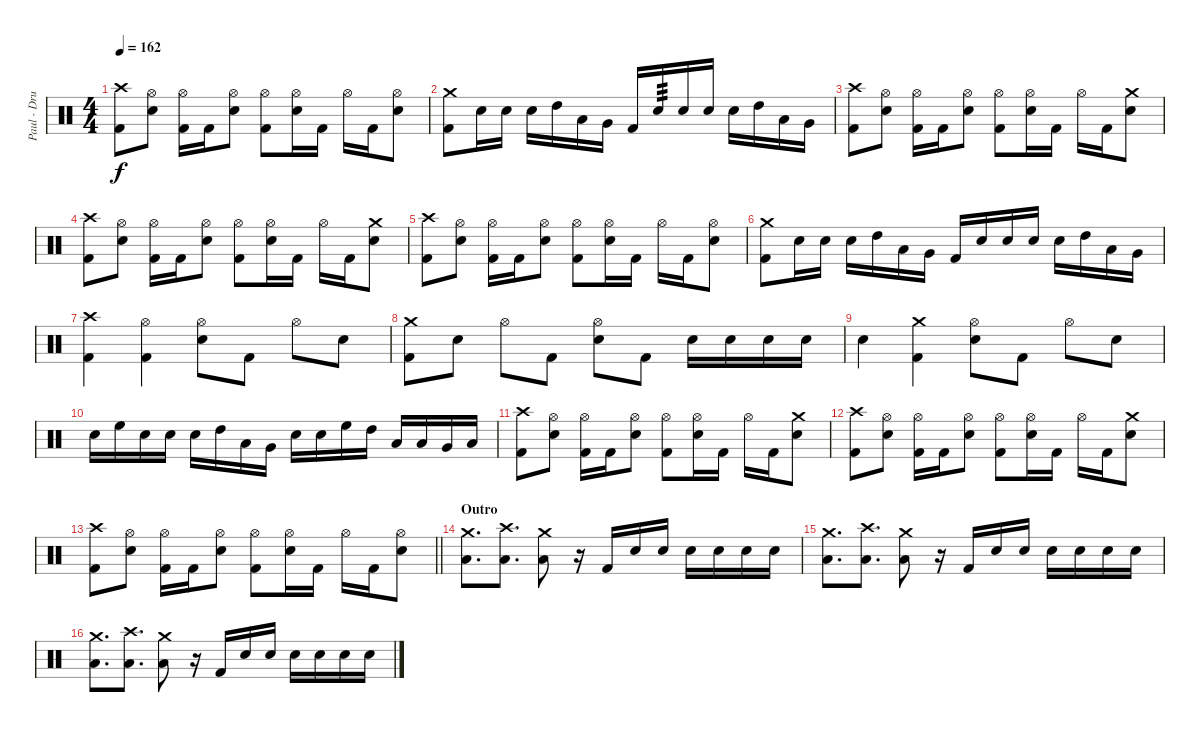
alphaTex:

\track ("Paul - Drums" "Paul - Dru") {instrument percussion}
\staff {score}
\articulation defaults
\ts (4 4)
\tempo 162
\clef neutral
\ks c
("Crash high (hit)" "Kick (hit) 2").8{dy f} ("Hi-Hat (open)" "Electric Snare (hit)").8 ("Hi-Hat (open)" "Kick (hit) 2").16 "Kick (hit) 2".16 ("Hi-Hat (open)" "Electric Snare (hit)").8 ("Hi-Hat (open)" "Kick (hit) 2").8 ("Hi-Hat (open)" "Electric Snare (hit)").16 "Kick (hit) 2".16 "Hi-Hat (open)".16 "Kick (hit) 2".16 ("Hi-Hat (open)" "Electric Snare (hit)").8 |
("Crash medium (hit)" "Kick (hit) 2").8 "Electric Snare (hit)".16 "Electric Snare (hit)".16 "Electric Snare (hit)".16 "High Tom (hit)".16 "Low Tom (hit)".16 "Very Low Tom (hit)".16 "Kick (hit) 2".16 "Electric Snare (hit)".16{tp 3} "Electric Snare (hit)".16 "Electric Snare (hit)".16 "Electric Snare (hit)".16 "High Tom (hit)".16 "Low Tom (hit)".16 "Very Low Tom (hit)".16 |
("Crash high (hit)" "Kick (hit) 2").8 ("Hi-Hat (open)" "Electric Snare (hit)").8 ("Hi-Hat (open)" "Kick (hit) 2").16 "Kick (hit) 2".16 ("Hi-Hat (open)" "Electric Snare (hit)").8 ("Hi-Hat (open)" "Kick (hit) 2").8 ("Hi-Hat (open)" "Electric Snare (hit)").16 "Kick (hit) 2".16 "Hi-Hat (open)".16 "Kick (hit) 2".16 ("Crash medium (hit)" "Electric Snare (hit)").8 |
("Crash high (hit)" "Kick (hit) 2").8 ("Hi-Hat (open)" "Electric Snare (hit)").8 ("Hi-Hat (open)" "Kick (hit) 2").16 "Kick (hit) 2".16 ("Hi-Hat (open)" "Electric Snare (hit)").8 ("Hi-Hat (open)" "Kick (hit) 2").8 ("Hi-Hat (open)" "Electric Snare (hit)").16 "Kick (hit) 2".16 "Hi-Hat (open)".16 "Kick (hit) 2".16 ("Crash medium (hit)" "Electric Snare (hit)").8 |
("Crash high (hit)" "Kick (hit) 2").8 ("Hi-Hat (open)" "Electric Snare (hit)").8 ("Hi-Hat (open)" "Kick (hit) 2").16 "Kick (hit) 2".16 ("Hi-Hat (open)" "Electric Snare (hit)").8 ("Hi-Hat (open)" "Kick (hit) 2").8 ("Hi-Hat (open)" "Electric Snare (hit)").16 "Kick (hit) 2".16 "Hi-Hat (open)".16 "Kick (hit) 2".16 ("Hi-Hat (open)" "Electric Snare (hit)").8 |
("Crash medium (hit)" "Kick (hit) 2").8 "Electric Snare (hit)".16 "Electric Snare (hit)".16 "Electric Snare (hit)".16 "High Tom (hit)".16 "Low Tom (hit)".16 "Very Low Tom (hit)".16 "Kick (hit) 2".16 "Electric Snare (hit)".16 "Electric Snare (hit)".16 "Electric Snare (hit)".16 "Electric Snare (hit)".16 "High Tom (hit)".16 "Low Tom (hit)".16 "Very Low Tom (hit)".16 |
("Crash high (hit)" "Kick (hit) 2").4 ("Hi-Hat (open)" "Kick (hit) 2").4 ("Hi-Hat (open)" "Electric Snare (hit)").8 "Kick (hit) 2".8 "Hi-Hat (open)".8 "Electric Snare (hit)".8 |
("Crash medium (hit)" "Kick (hit) 2").8 "Electric Snare (hit)".8 "Hi-Hat (open)".8 "Kick (hit) 2".8 ("Hi-Hat (open)" "Electric Snare (hit)").8 "Kick (hit) 2".8 "Electric Snare (hit)".16 "Electric Snare (hit)".16 "Electric Snare (hit)".16 "Electric Snare (hit)".16 |
"Electric Snare (hit)".4 ("Crash medium (hit)" "Kick (hit) 2").4 ("Hi-Hat (open)" "Electric Snare (hit)").8 "Kick (hit) 2".8 "Hi-Hat (open)".8 "Electric Snare (hit)".8 |
"Electric Snare (hit)".16 "High Floor Tom (hit)".16 "Electric Snare (hit)".16 "Electric Snare (hit)".16 "Electric Snare (hit)".16 "High Tom (hit)".16 "Low Tom (hit)".16 "Very Low Tom (hit)".16 "Electric Snare (hit)".16 "Electric Snare (hit)".16 "High Floor Tom (hit)".16 "High Tom (hit)".16 "Low Tom (hit)".16 "Low Tom (hit)".16 "Very Low Tom (hit)".16 "Low Floor Tom (hit)".16 |
("Crash high (hit)" "Kick (hit) 2").8 ("Hi-Hat (open)" "Electric Snare (hit)").8 ("Hi-Hat (open)" "Kick (hit) 2").16 "Kick (hit) 2".16 ("Hi-Hat (open)" "Electric Snare (hit)").8 ("Hi-Hat (open)" "Kick (hit) 2").8 ("Hi-Hat (open)" "Electric Snare (hit)").16 "Kick (hit) 2".16 "Hi-Hat (open)".16 "Kick (hit) 2".16 ("Crash medium (hit)" "Electric Snare (hit)").8 |
("Crash high (hit)" "Kick (hit) 2").8 ("Hi-Hat (open)" "Electric Snare (hit)").8 ("Hi-Hat (open)" "Kick (hit) 2").16 "Kick (hit) 2".16 ("Hi-Hat (open)" "Electric Snare (hit)").8 ("Hi-Hat (open)" "Kick (hit) 2").8 ("Hi-Hat (open)" "Electric Snare (hit)").16 "Kick (hit) 2".16 "Hi-Hat (open)".16 "Kick (hit) 2".16 ("Crash medium (hit)" "Electric Snare (hit)").8 |
\barLineRight lightlight
("Crash high (hit)" "Kick (hit) 2").8 ("Hi-Hat (open)" "Electric Snare (hit)").8 ("Hi-Hat (open)" "Kick (hit) 2").16 "Kick (hit) 2".16 ("Hi-Hat (open)" "Electric Snare (hit)").8 ("Hi-Hat (open)" "Kick (hit) 2").8 ("Hi-Hat (open)" "Electric Snare (hit)").16 "Kick (hit) 2".16 "Hi-Hat (open)".16 "Kick (hit) 2".16 ("Hi-Hat (open)" "Electric Snare (hit)").8 |
\section ("" "Outro")
("Crash medium (hit)" "Low Floor Tom (hit)").8{d} ("Crash high (hit)" "Low Floor Tom (hit)").8{d} ("Crash medium (hit)" "Low Floor Tom (hit)").8 r.16 "Kick (hit) 2".16 "Electric Snare (hit)".16 "Electric Snare (hit)".16 "Electric Snare (hit)".16 "Electric Snare (hit)".16 "Electric Snare (hit)".16 "Electric Snare (hit)".16 |
("Crash medium (hit)" "Low Floor Tom (hit)").8{d} ("Crash high (hit)" "Low Floor Tom (hit)").8{d} ("Crash medium (hit)" "Low Floor Tom (hit)").8 r.16 "Kick (hit) 2".16 "Electric Snare (hit)".16 "Electric Snare (hit)".16 "Electric Snare (hit)".16 "Electric Snare (hit)".16 "Electric Snare (hit)".16 "Electric Snare (hit)".16 |
("Crash medium (hit)" "Low Floor Tom (hit)").8{d} ("Crash high (hit)" "Low Floor Tom (hit)").8{d} ("Crash medium (hit)" "Low Floor Tom (hit)").8 r.16 "Kick (hit) 2".16 "Electric Snare (hit)".16 "Electric Snare (hit)".16 "Electric Snare (hit)".16 "Electric Snare (hit)".16 "Electric Snare (hit)".16 "Electric Snare (hit)".16
